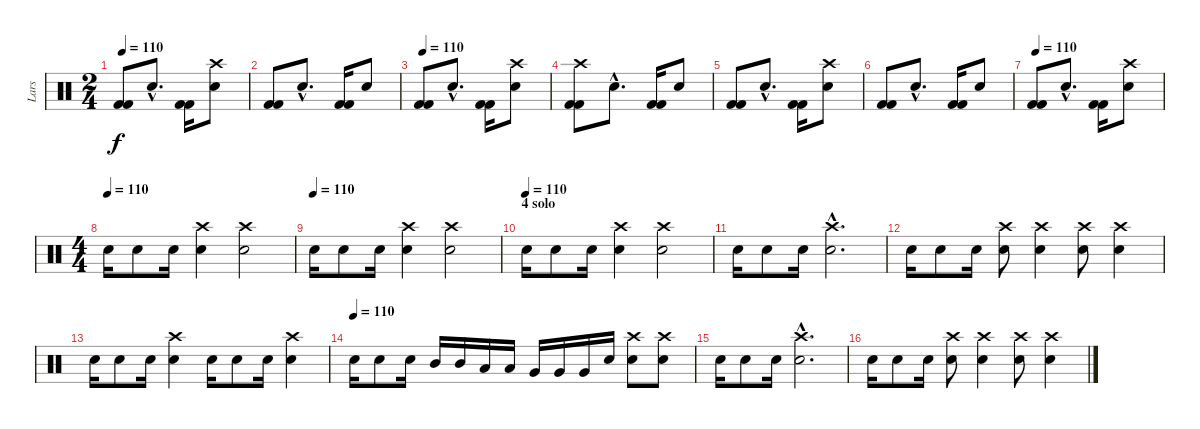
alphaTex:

\track ("Lars" "Lars") {instrument percussion}
\staff {score}
\articulation defaults
\ts (2 4)
\tempo 110
\clef neutral
\ks c
("Kick (hit) 2" "Kick (hit) 2").8{dy f} "Snare (hit) 2"{hac}.8{d} ("Kick (hit) 2" "Kick (hit) 2").16 ("Snare (hit) 2" "Crash high (hit)").8 |
("Kick (hit) 2" "Kick (hit) 2").8 "Snare (hit) 2"{hac}.8{d} ("Kick (hit) 2" "Kick (hit) 2").16 "Snare (hit) 2".8 |
\tempo 110
("Kick (hit) 2" "Kick (hit) 2").8 "Snare (hit) 2"{hac}.8{d} ("Kick (hit) 2" "Kick (hit) 2").16 ("Snare (hit) 2" "Crash high (hit)").8 |
("Crash high (hit)" "Kick (hit) 2" "Kick (hit) 2").8 "Snare (hit) 2"{hac}.8{d} ("Kick (hit) 2" "Kick (hit) 2").16 "Snare (hit) 2".8 |
("Kick (hit) 2" "Kick (hit) 2").8 "Snare (hit) 2"{hac}.8{d} ("Kick (hit) 2" "Kick (hit) 2").16 ("Snare (hit) 2" "Crash high (hit)").8 |
("Kick (hit) 2" "Kick (hit) 2").8 "Snare (hit) 2"{hac}.8{d} ("Kick (hit) 2" "Kick (hit) 2").16 "Snare (hit) 2".8 |
\tempo 110
("Kick (hit) 2" "Kick (hit) 2").8 "Snare (hit) 2"{hac}.8{d} ("Kick (hit) 2" "Kick (hit) 2").16 ("Snare (hit) 2" "Crash high (hit)").8 |
\ts (4 4)
\tempo (110)
"Snare (hit) 2".16 "Snare (hit) 2".8 "Snare (hit) 2".16 ("Crash high (hit)" "Snare (hit) 2").4 ("Crash high (hit)" "Snare (hit) 2").2 |
\tempo (110)
"Snare (hit) 2".16 "Snare (hit) 2".8 "Snare (hit) 2".16 ("Crash high (hit)" "Snare (hit) 2").4 ("Crash high (hit)" "Snare (hit) 2").2 |
\section ("" "4 solo")
\tempo (110)
"Snare (hit) 2".16 "Snare (hit) 2".8 "Snare (hit) 2".16 ("Crash high (hit)" "Snare (hit) 2").4 ("Crash high (hit)" "Snare (hit) 2").2 |
"Snare (hit) 2".16 "Snare (hit) 2".8 "Snare (hit) 2".16 ("Crash high (hit)"{hac} "Snare (hit) 2"{hac}).2{d} |
"Snare (hit) 2".16 "Snare (hit) 2".8 "Snare (hit) 2".16 ("Crash high (hit)" "Snare (hit) 2").8 ("Crash high (hit)" "Snare (hit) 2").4 ("Snare (hit) 2" "Crash high (hit)").8 ("Crash high (hit)" "Snare (hit) 2").4 |
"Snare (hit) 2".16 "Snare (hit) 2".8 "Snare (hit) 2".16 ("Crash high (hit)" "Snare (hit) 2").4 "Snare (hit) 2".16 "Snare (hit) 2".8 "Snare (hit) 2".16 ("Crash high (hit)" "Snare (hit) 2").4 |
\tempo (110)
"Snare (hit) 2".16 "Snare (hit) 2".8 "Snare (hit) 2".16 "Mid Tom (hit)".16 "Mid Tom (hit)".16 "Low Tom (hit)".16 "Low Tom (hit)".16 "Very Low Tom (hit)".16 "Very Low Tom (hit)".16 "Very Low Tom (hit)".16 "Snare (hit) 2".16 ("Snare (hit) 2" "Crash high (hit)").8 ("Snare (hit) 2" "Crash high (hit)").8 |
"Snare (hit) 2".16 "Snare (hit) 2".8 "Snare (hit) 2".16 ("Crash high (hit)"{hac} "Snare (hit) 2"{hac}).2{d} |
"Snare (hit) 2".16 "Snare (hit) 2".8 "Snare (hit) 2".16 ("Crash high (hit)" "Snare (hit) 2").8 ("Crash high (hit)" "Snare (hit) 2").4 ("Snare (hit) 2" "Crash high (hit)").8 ("Crash high (hit)" "Snare (hit) 2").4
